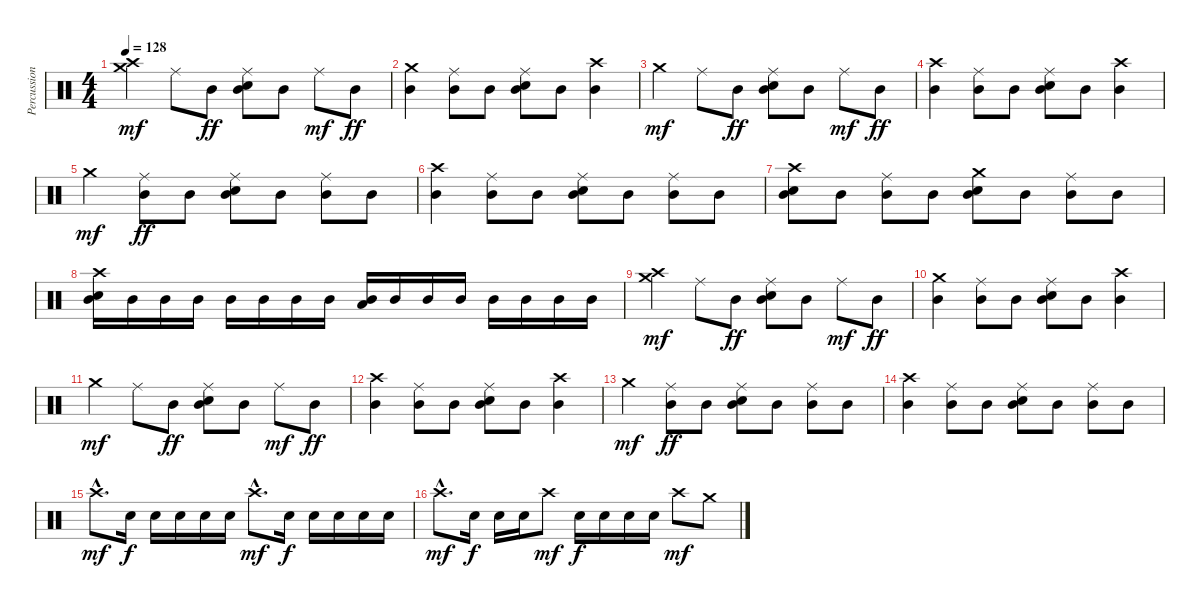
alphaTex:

\track ("Percussion" "Percussion") {instrument percussion}
\staff {score}
\articulation defaults
\ts (4 4)
\tempo 128
\clef neutral
\ks c
("Crash high (hit)" "Crash medium (hit)").4{dy mf} "Ride (middle)".8 "Mid Tom (hit)".8{dy ff} ("Ride (middle)" "Electric Snare (hit)" "Mid Tom (hit)").8 "Mid Tom (hit)".8 "Ride (middle)".8{dy mf} "Mid Tom (hit)".8{dy ff} |
("Crash medium (hit)" "Mid Tom (hit)").4 ("Ride (middle)" "Mid Tom (hit)").8 "Mid Tom (hit)".8 ("Ride (middle)" "Electric Snare (hit)" "Mid Tom (hit)").8 "Mid Tom (hit)".8 ("Crash high (hit)" "Mid Tom (hit)").4 |
"Crash medium (hit)".4{dy mf} "Ride (middle)".8 "Mid Tom (hit)".8{dy ff} ("Ride (middle)" "Electric Snare (hit)" "Mid Tom (hit)").8 "Mid Tom (hit)".8 "Ride (middle)".8{dy mf} "Mid Tom (hit)".8{dy ff} |
("Crash high (hit)" "Mid Tom (hit)").4 ("Ride (middle)" "Mid Tom (hit)").8 "Mid Tom (hit)".8 ("Ride (middle)" "Electric Snare (hit)" "Mid Tom (hit)").8 "Mid Tom (hit)".8 ("Crash high (hit)" "Mid Tom (hit)").4 |
"Crash medium (hit)".4{dy mf} ("Ride (middle)" "Mid Tom (hit)").8{dy ff} "Mid Tom (hit)".8 ("Ride (middle)" "Electric Snare (hit)" "Mid Tom (hit)").8 "Mid Tom (hit)".8 ("Ride (middle)" "Mid Tom (hit)").8 "Mid Tom (hit)".8 |
("Crash high (hit)" "Mid Tom (hit)").4 ("Ride (middle)" "Mid Tom (hit)").8 "Mid Tom (hit)".8 ("Ride (middle)" "Electric Snare (hit)" "Mid Tom (hit)").8 "Mid Tom (hit)".8 ("Ride (middle)" "Mid Tom (hit)").8 "Mid Tom (hit)".8 |
("Crash high (hit)" "Electric Snare (hit)" "Mid Tom (hit)").8 "Mid Tom (hit)".8 ("Ride (middle)" "Mid Tom (hit)").8 "Mid Tom (hit)".8 ("Crash medium (hit)" "Electric Snare (hit)" "Mid Tom (hit)").8 "Mid Tom (hit)".8 ("Ride (middle)" "Mid Tom (hit)").8 "Mid Tom (hit)".8 |
("Crash high (hit)" "Electric Snare (hit)" "Mid Tom (hit)").16 "Mid Tom (hit)".16 "Mid Tom (hit)".16 "Mid Tom (hit)".16 "Mid Tom (hit)".16 "Mid Tom (hit)".16 "Mid Tom (hit)".16 "Mid Tom (hit)".16 ("Low Floor Tom (hit)" "Mid Tom (hit)").16 "Mid Tom (hit)".16 "Mid Tom (hit)".16 "Mid Tom (hit)".16 "Mid Tom (hit)".16 "Mid Tom (hit)".16 "Mid Tom (hit)".16 "Mid Tom (hit)".16 |
("Crash high (hit)" "Crash medium (hit)").4{dy mf} "Ride (middle)".8 "Mid Tom (hit)".8{dy ff} ("Ride (middle)" "Electric Snare (hit)" "Mid Tom (hit)").8 "Mid Tom (hit)".8 "Ride (middle)".8{dy mf} "Mid Tom (hit)".8{dy ff} |
("Crash medium (hit)" "Mid Tom (hit)").4 ("Ride (middle)" "Mid Tom (hit)").8 "Mid Tom (hit)".8 ("Ride (middle)" "Electric Snare (hit)" "Mid Tom (hit)").8 "Mid Tom (hit)".8 ("Crash high (hit)" "Mid Tom (hit)").4 |
"Crash medium (hit)".4{dy mf} "Ride (middle)".8 "Mid Tom (hit)".8{dy ff} ("Ride (middle)" "Electric Snare (hit)" "Mid Tom (hit)").8 "Mid Tom (hit)".8 "Ride (middle)".8{dy mf} "Mid Tom (hit)".8{dy ff} |
("Crash high (hit)" "Mid Tom (hit)").4 ("Ride (middle)" "Mid Tom (hit)").8 "Mid Tom (hit)".8 ("Ride (middle)" "Electric Snare (hit)" "Mid Tom (hit)").8 "Mid Tom (hit)".8 ("Crash high (hit)" "Mid Tom (hit)").4 |
"Crash medium (hit)".4{dy mf} ("Ride (middle)" "Mid Tom (hit)").8{dy ff} "Mid Tom (hit)".8 ("Ride (middle)" "Electric Snare (hit)" "Mid Tom (hit)").8 "Mid Tom (hit)".8 ("Ride (middle)" "Mid Tom (hit)").8 "Mid Tom (hit)".8 |
("Crash high (hit)" "Mid Tom (hit)").4 ("Ride (middle)" "Mid Tom (hit)").8 "Mid Tom (hit)".8 ("Ride (middle)" "Electric Snare (hit)" "Mid Tom (hit)").8 "Mid Tom (hit)".8 ("Ride (middle)" "Mid Tom (hit)").8 "Mid Tom (hit)".8 |
"Crash high (hit)"{hac}.8{d dy mf} "Snare (hit) 2".16{dy f} "Snare (hit) 2".16 "Snare (hit) 2".16 "Snare (hit) 2".16 "Snare (hit) 2".16 "Crash high (hit)"{hac}.8{d dy mf} "Snare (hit) 2".16{dy f} "Snare (hit) 2".16 "Snare (hit) 2".16 "Snare (hit) 2".16 "Snare (hit) 2".16 |
"Crash high (hit)"{hac}.8{d dy mf} "Snare (hit) 2".16{dy f} "Snare (hit) 2".16 "Snare (hit) 2".16 "Crash high (hit)".8{dy mf} "Snare (hit) 2".16{dy f} "Snare (hit) 2".16 "Snare (hit) 2".16 "Snare (hit) 2".16 "Crash high (hit)".8{dy mf} "Crash medium (hit)".8
